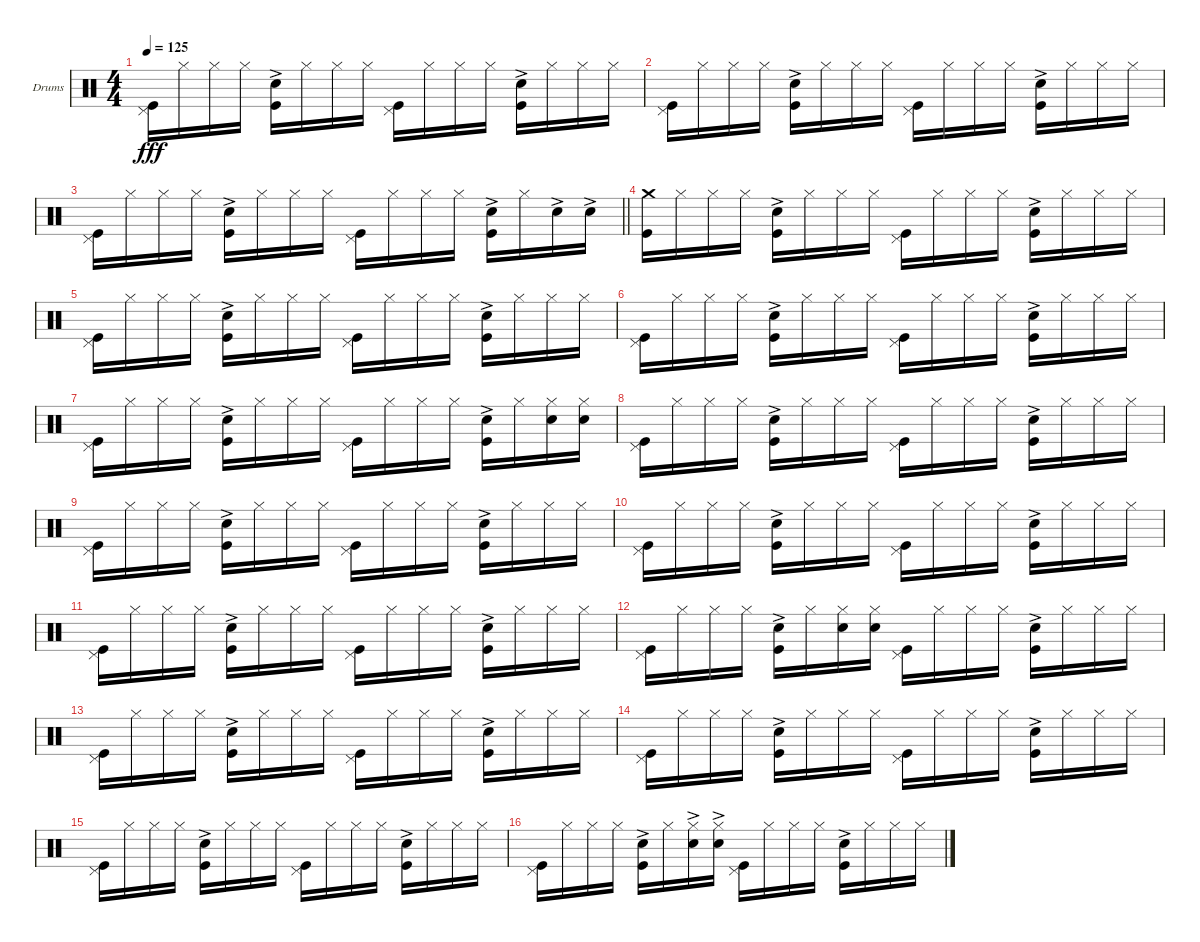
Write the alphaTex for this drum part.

\bracketExtendMode groupsimilarinstruments
\firstSystemTrackNameOrientation horizontal
\otherSystemsTrackNameOrientation horizontal
\track ("Ударники Григорий Гурьянов" "Drums") {instrument percussion}
\staff {score}
\articulation defaults
\ts (4 4)
\tempo 125
\clef neutral
\ks c
("Pedal Hi-Hat (hit)" "Kick (hit)").16{dy fff} "Hi-Hat (closed)".16 "Hi-Hat (closed)".16 "Hi-Hat (closed)".16 ("Snare (hit) 2"{ac} "Kick (hit)").16 "Hi-Hat (closed)".16 "Hi-Hat (closed)".16 "Hi-Hat (closed)".16 ("Pedal Hi-Hat (hit)" "Kick (hit)").16 "Hi-Hat (closed)".16 "Hi-Hat (closed)".16 "Hi-Hat (closed)".16 ("Snare (hit) 2"{ac} "Kick (hit)").16 "Hi-Hat (closed)".16 "Hi-Hat (closed)".16 "Hi-Hat (closed)".16 |
("Pedal Hi-Hat (hit)" "Kick (hit)").16 "Hi-Hat (closed)".16 "Hi-Hat (closed)".16 "Hi-Hat (closed)".16 ("Snare (hit) 2"{ac} "Kick (hit)").16 "Hi-Hat (closed)".16 "Hi-Hat (closed)".16 "Hi-Hat (closed)".16 ("Pedal Hi-Hat (hit)" "Kick (hit)").16 "Hi-Hat (closed)".16 "Hi-Hat (closed)".16 "Hi-Hat (closed)".16 ("Snare (hit) 2"{ac} "Kick (hit)").16 "Hi-Hat (closed)".16 "Hi-Hat (closed)".16 "Hi-Hat (closed)".16 |
\barLineRight lightlight
("Pedal Hi-Hat (hit)" "Kick (hit)").16 "Hi-Hat (closed)".16 "Hi-Hat (closed)".16 "Hi-Hat (closed)".16 ("Snare (hit) 2"{ac} "Kick (hit)").16 "Hi-Hat (closed)".16 "Hi-Hat (closed)".16 "Hi-Hat (closed)".16 ("Pedal Hi-Hat (hit)" "Kick (hit)").16 "Hi-Hat (closed)".16 "Hi-Hat (closed)".16 "Hi-Hat (closed)".16 ("Snare (hit) 2"{ac} "Kick (hit)").16 "Hi-Hat (closed)".16 "Snare (hit) 2"{ac}.16 "Snare (hit) 2"{ac}.16 |
("Crash medium (hit)" "Kick (hit)").16 "Hi-Hat (closed)".16 "Hi-Hat (closed)".16 "Hi-Hat (closed)".16 ("Snare (hit) 2"{ac} "Kick (hit)").16 "Hi-Hat (closed)".16 "Hi-Hat (closed)".16 "Hi-Hat (closed)".16 ("Pedal Hi-Hat (hit)" "Kick (hit)").16 "Hi-Hat (closed)".16 "Hi-Hat (closed)".16 "Hi-Hat (closed)".16 ("Snare (hit) 2"{ac} "Kick (hit)").16 "Hi-Hat (closed)".16 "Hi-Hat (closed)".16 "Hi-Hat (closed)".16 |
("Pedal Hi-Hat (hit)" "Kick (hit)").16 "Hi-Hat (closed)".16 "Hi-Hat (closed)".16 "Hi-Hat (closed)".16 ("Snare (hit) 2"{ac} "Kick (hit)").16 "Hi-Hat (closed)".16 "Hi-Hat (closed)".16 "Hi-Hat (closed)".16 ("Pedal Hi-Hat (hit)" "Kick (hit)").16 "Hi-Hat (closed)".16 "Hi-Hat (closed)".16 "Hi-Hat (closed)".16 ("Snare (hit) 2"{ac} "Kick (hit)").16 "Hi-Hat (closed)".16 "Hi-Hat (closed)".16 "Hi-Hat (closed)".16 |
("Pedal Hi-Hat (hit)" "Kick (hit)").16 "Hi-Hat (closed)".16 "Hi-Hat (closed)".16 "Hi-Hat (closed)".16 ("Snare (hit) 2"{ac} "Kick (hit)").16 "Hi-Hat (closed)".16 "Hi-Hat (closed)".16 "Hi-Hat (closed)".16 ("Pedal Hi-Hat (hit)" "Kick (hit)").16 "Hi-Hat (closed)".16 "Hi-Hat (closed)".16 "Hi-Hat (closed)".16 ("Snare (hit) 2"{ac} "Kick (hit)").16 "Hi-Hat (closed)".16 "Hi-Hat (closed)".16 "Hi-Hat (closed)".16 |
("Pedal Hi-Hat (hit)" "Kick (hit)").16 "Hi-Hat (closed)".16 "Hi-Hat (closed)".16 "Hi-Hat (closed)".16 ("Snare (hit) 2"{ac} "Kick (hit)").16 "Hi-Hat (closed)".16 "Hi-Hat (closed)".16 "Hi-Hat (closed)".16 ("Pedal Hi-Hat (hit)" "Kick (hit)").16 "Hi-Hat (closed)".16 "Hi-Hat (closed)".16 "Hi-Hat (closed)".16 ("Snare (hit) 2"{ac} "Kick (hit)").16 "Hi-Hat (closed)".16 ("Hi-Hat (closed)" "Snare (hit) 2").16 ("Hi-Hat (closed)" "Snare (hit) 2").16 |
("Pedal Hi-Hat (hit)" "Kick (hit)").16 "Hi-Hat (closed)".16 "Hi-Hat (closed)".16 "Hi-Hat (closed)".16 ("Snare (hit) 2"{ac} "Kick (hit)").16 "Hi-Hat (closed)".16 "Hi-Hat (closed)".16 "Hi-Hat (closed)".16 ("Pedal Hi-Hat (hit)" "Kick (hit)").16 "Hi-Hat (closed)".16 "Hi-Hat (closed)".16 "Hi-Hat (closed)".16 ("Snare (hit) 2"{ac} "Kick (hit)").16 "Hi-Hat (closed)".16 "Hi-Hat (closed)".16 "Hi-Hat (closed)".16 |
("Pedal Hi-Hat (hit)" "Kick (hit)").16 "Hi-Hat (closed)".16 "Hi-Hat (closed)".16 "Hi-Hat (closed)".16 ("Snare (hit) 2"{ac} "Kick (hit)").16 "Hi-Hat (closed)".16 "Hi-Hat (closed)".16 "Hi-Hat (closed)".16 ("Pedal Hi-Hat (hit)" "Kick (hit)").16 "Hi-Hat (closed)".16 "Hi-Hat (closed)".16 "Hi-Hat (closed)".16 ("Snare (hit) 2"{ac} "Kick (hit)").16 "Hi-Hat (closed)".16 "Hi-Hat (closed)".16 "Hi-Hat (closed)".16 |
("Pedal Hi-Hat (hit)" "Kick (hit)").16 "Hi-Hat (closed)".16 "Hi-Hat (closed)".16 "Hi-Hat (closed)".16 ("Snare (hit) 2"{ac} "Kick (hit)").16 "Hi-Hat (closed)".16 "Hi-Hat (closed)".16 "Hi-Hat (closed)".16 ("Pedal Hi-Hat (hit)" "Kick (hit)").16 "Hi-Hat (closed)".16 "Hi-Hat (closed)".16 "Hi-Hat (closed)".16 ("Snare (hit) 2"{ac} "Kick (hit)").16 "Hi-Hat (closed)".16 "Hi-Hat (closed)".16 "Hi-Hat (closed)".16 |
("Pedal Hi-Hat (hit)" "Kick (hit)").16 "Hi-Hat (closed)".16 "Hi-Hat (closed)".16 "Hi-Hat (closed)".16 ("Snare (hit) 2"{ac} "Kick (hit)").16 "Hi-Hat (closed)".16 "Hi-Hat (closed)".16 "Hi-Hat (closed)".16 ("Pedal Hi-Hat (hit)" "Kick (hit)").16 "Hi-Hat (closed)".16 "Hi-Hat (closed)".16 "Hi-Hat (closed)".16 ("Snare (hit) 2"{ac} "Kick (hit)").16 "Hi-Hat (closed)".16 "Hi-Hat (closed)".16 "Hi-Hat (closed)".16 |
("Pedal Hi-Hat (hit)" "Kick (hit)").16 "Hi-Hat (closed)".16 "Hi-Hat (closed)".16 "Hi-Hat (closed)".16 ("Snare (hit) 2"{ac} "Kick (hit)").16 "Hi-Hat (closed)".16 ("Hi-Hat (closed)" "Snare (hit) 2").16 ("Hi-Hat (closed)" "Snare (hit) 2").16 ("Pedal Hi-Hat (hit)" "Kick (hit)").16 "Hi-Hat (closed)".16 "Hi-Hat (closed)".16 "Hi-Hat (closed)".16 ("Snare (hit) 2"{ac} "Kick (hit)").16 "Hi-Hat (closed)".16 "Hi-Hat (closed)".16 "Hi-Hat (closed)".16 |
("Pedal Hi-Hat (hit)" "Kick (hit)").16 "Hi-Hat (closed)".16 "Hi-Hat (closed)".16 "Hi-Hat (closed)".16 ("Snare (hit) 2"{ac} "Kick (hit)").16 "Hi-Hat (closed)".16 "Hi-Hat (closed)".16 "Hi-Hat (closed)".16 ("Pedal Hi-Hat (hit)" "Kick (hit)").16 "Hi-Hat (closed)".16 "Hi-Hat (closed)".16 "Hi-Hat (closed)".16 ("Snare (hit) 2"{ac} "Kick (hit)").16 "Hi-Hat (closed)".16 "Hi-Hat (closed)".16 "Hi-Hat (closed)".16 |
("Pedal Hi-Hat (hit)" "Kick (hit)").16 "Hi-Hat (closed)".16 "Hi-Hat (closed)".16 "Hi-Hat (closed)".16 ("Snare (hit) 2"{ac} "Kick (hit)").16 "Hi-Hat (closed)".16 "Hi-Hat (closed)".16 "Hi-Hat (closed)".16 ("Pedal Hi-Hat (hit)" "Kick (hit)").16 "Hi-Hat (closed)".16 "Hi-Hat (closed)".16 "Hi-Hat (closed)".16 ("Snare (hit) 2"{ac} "Kick (hit)").16 "Hi-Hat (closed)".16 "Hi-Hat (closed)".16 "Hi-Hat (closed)".16 |
("Pedal Hi-Hat (hit)" "Kick (hit)").16 "Hi-Hat (closed)".16 "Hi-Hat (closed)".16 "Hi-Hat (closed)".16 ("Snare (hit) 2"{ac} "Kick (hit)").16 "Hi-Hat (closed)".16 "Hi-Hat (closed)".16 "Hi-Hat (closed)".16 ("Pedal Hi-Hat (hit)" "Kick (hit)").16 "Hi-Hat (closed)".16 "Hi-Hat (closed)".16 "Hi-Hat (closed)".16 ("Snare (hit) 2"{ac} "Kick (hit)").16 "Hi-Hat (closed)".16 "Hi-Hat (closed)".16 "Hi-Hat (closed)".16 |
("Pedal Hi-Hat (hit)" "Kick (hit)").16 "Hi-Hat (closed)".16 "Hi-Hat (closed)".16 "Hi-Hat (closed)".16 ("Snare (hit) 2"{ac} "Kick (hit)").16 "Hi-Hat (closed)".16 ("Hi-Hat (closed)" "Snare (hit) 2"{ac}).16 ("Hi-Hat (closed)" "Snare (hit) 2"{ac}).16 ("Pedal Hi-Hat (hit)" "Kick (hit)").16 "Hi-Hat (closed)".16 "Hi-Hat (closed)".16 "Hi-Hat (closed)".16 ("Snare (hit) 2"{ac} "Kick (hit)").16 "Hi-Hat (closed)".16 "Hi-Hat (closed)".16 "Hi-Hat (closed)".16
